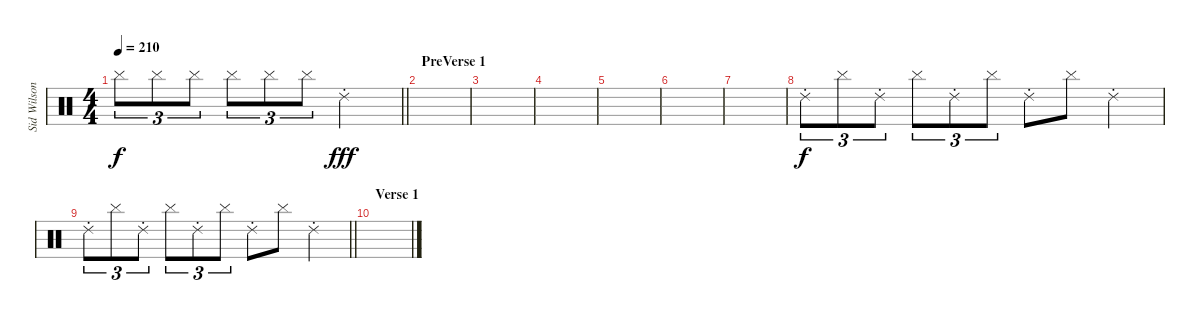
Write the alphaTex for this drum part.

\track ("Sid Wilson" "Sid Wilson") {instrument percussion}
\staff {score}
\articulation defaults
\ts (4 4)
\tempo 210
\clef neutral
\barLineRight lightlight
\ks c "Cymbal (hit)".8{tu (3 2) dy f} "Cymbal (hit)".8{tu (3 2)} "Cymbal (hit)".8{tu (3 2)} "Cymbal (hit)".8{tu (3 2)} "Cymbal (hit)".8{tu (3 2)} "Cymbal (hit)".8{tu (3 2)} "Ride (choke) 2".2{dy fff}
|
\section ("" "PreVerse 1")
|
|
|
|
|
|
"Ride (choke) 2".8{tu (3 2) dy f} "Cymbal (hit)".8{tu (3 2)} "Ride (choke) 2".8{tu (3 2)} "Cymbal (hit)".8{tu (3 2)} "Ride (choke) 2".8{tu (3 2)} "Cymbal (hit)".8{tu (3 2)} "Ride (choke) 2".8 "Cymbal (hit)".8 "Ride (choke) 2".4 |
\barLineRight lightlight "Ride (choke) 2".8{tu (3 2)} "Cymbal (hit)".8{tu (3 2)} "Ride (choke) 2".8{tu (3 2)} "Cymbal (hit)".8{tu (3 2)} "Ride (choke) 2".8{tu (3 2)} "Cymbal (hit)".8{tu (3 2)} "Ride (choke) 2".8 "Cymbal (hit)".8 "Ride (choke) 2".4
|
\section ("" "Verse 1")
